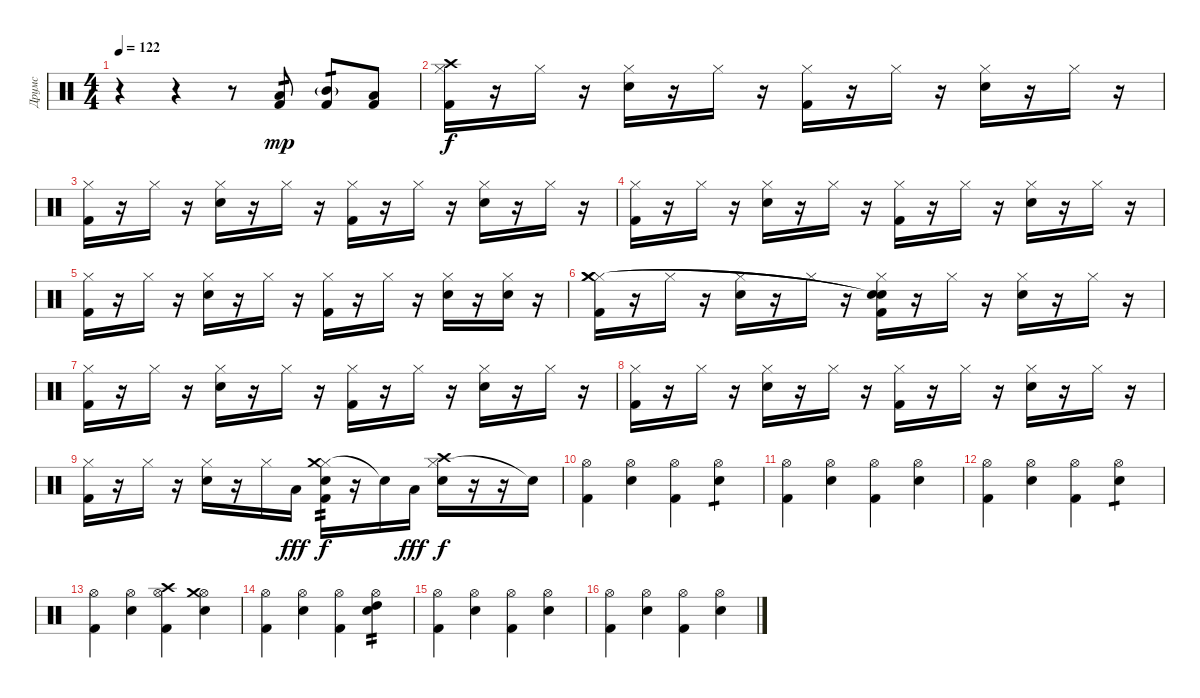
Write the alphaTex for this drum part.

\track ("Друмс" "Друмс") {instrument percussion}
\staff {score}
\articulation defaults
\ts (4 4)
\tempo 122
\clef neutral
\ks c
r.4{dy mp} r.4 r.8 ("Low Tom (hit)" "Kick (hit) 2").8{tp 1} ("Mid Tom (hit)"{g} "Kick (hit) 2").8{tp 1} ("Low Tom (hit)" "Kick (hit) 2").8 |
("Hi-Hat (closed)" "Kick (hit) 2" "Crash high (hit)").16{dy f} r.16 "Hi-Hat (closed)".16 r.16 ("Hi-Hat (closed)" "Snare (hit) 2").16 r.16 "Hi-Hat (closed)".16 r.16 ("Hi-Hat (closed)" "Kick (hit) 2").16 r.16 "Hi-Hat (closed)".16 r.16 ("Hi-Hat (closed)" "Snare (hit) 2").16 r.16 "Hi-Hat (closed)".16 r.16 |
("Hi-Hat (closed)" "Kick (hit) 2").16 r.16 "Hi-Hat (closed)".16 r.16 ("Hi-Hat (closed)" "Snare (hit) 2").16 r.16 "Hi-Hat (closed)".16 r.16 ("Hi-Hat (closed)" "Kick (hit) 2").16 r.16 "Hi-Hat (closed)".16 r.16 ("Hi-Hat (closed)" "Snare (hit) 2").16 r.16 "Hi-Hat (closed)".16 r.16 |
("Hi-Hat (closed)" "Kick (hit) 2").16 r.16 "Hi-Hat (closed)".16 r.16 ("Hi-Hat (closed)" "Snare (hit) 2").16 r.16 "Hi-Hat (closed)".16 r.16 ("Hi-Hat (closed)" "Kick (hit) 2").16 r.16 "Hi-Hat (closed)".16 r.16 ("Hi-Hat (closed)" "Snare (hit) 2").16 r.16 "Hi-Hat (closed)".16 r.16 |
("Hi-Hat (closed)" "Kick (hit) 2").16 r.16 "Hi-Hat (closed)".16 r.16 ("Hi-Hat (closed)" "Snare (hit) 2").16 r.16 "Hi-Hat (closed)".16 r.16 ("Hi-Hat (closed)" "Kick (hit) 2").16 r.16 "Hi-Hat (closed)".16 r.16 ("Hi-Hat (closed)" "Snare (hit) 2").16 r.16 ("Hi-Hat (closed)" "Snare (hit) 2").16 r.16 |
("Hi-Hat (closed)" "Kick (hit) 2" "Crash medium (hit)" "Crash medium (hit)").16 r.16 "Hi-Hat (closed)".16 r.16 ("Hi-Hat (closed)" "Snare (hit) 2").16 r.16 "Hi-Hat (closed)".16 r.16 ("Hi-Hat (closed)" "Kick (hit) 2" "Snare (hit)"{t} "Snare (hit)"{t}).16 r.16 "Hi-Hat (closed)".16 r.16 ("Hi-Hat (closed)" "Snare (hit) 2").16 r.16 "Hi-Hat (closed)".16 r.16 |
("Hi-Hat (closed)" "Kick (hit) 2").16 r.16 "Hi-Hat (closed)".16 r.16 ("Hi-Hat (closed)" "Snare (hit) 2").16 r.16 "Hi-Hat (closed)".16 r.16 ("Hi-Hat (closed)" "Kick (hit) 2").16 r.16 "Hi-Hat (closed)".16 r.16 ("Hi-Hat (closed)" "Snare (hit) 2").16 r.16 "Hi-Hat (closed)".16 r.16 |
("Hi-Hat (closed)" "Kick (hit) 2").16 r.16 "Hi-Hat (closed)".16 r.16 ("Hi-Hat (closed)" "Snare (hit) 2").16 r.16 "Hi-Hat (closed)".16 r.16 ("Hi-Hat (closed)" "Kick (hit) 2").16 r.16 "Hi-Hat (closed)".16 r.16 ("Hi-Hat (closed)" "Snare (hit) 2").16 r.16 "Hi-Hat (closed)".16 r.16 |
("Hi-Hat (closed)" "Kick (hit) 2").16 r.16 "Hi-Hat (closed)".16 r.16 ("Hi-Hat (closed)" "Snare (hit) 2").16 r.16 "Hi-Hat (closed)".16 "Low Tom (hit)".16{dy fff} ("Hi-Hat (closed)" "Kick (hit) 2" "Crash medium (hit)" "Snare (hit) 2").16{tp 2 dy f} r.16 "Snare (hit)"{t}.16 "Low Tom (hit)".16{dy fff} ("Hi-Hat (closed)" "Snare (hit) 2" "Crash high (hit)").16{dy f} r.16 r.16 "Snare (hit)"{t}.16 |
("Hi-Hat (open)" "Kick (hit) 2").4 ("Hi-Hat (open)" "Snare (hit) 2").4 ("Hi-Hat (open)" "Kick (hit) 2").4 ("Hi-Hat (open)" "Snare (hit) 2").4{tp 1} |
("Hi-Hat (open)" "Kick (hit) 2").4 ("Hi-Hat (open)" "Snare (hit) 2").4 ("Hi-Hat (open)" "Kick (hit) 2").4 ("Hi-Hat (open)" "Snare (hit) 2").4 |
("Hi-Hat (open)" "Kick (hit) 2").4 ("Hi-Hat (open)" "Snare (hit) 2").4 ("Hi-Hat (open)" "Kick (hit) 2").4 ("Hi-Hat (open)" "Snare (hit) 2").4{tp 1} |
("Hi-Hat (open)" "Kick (hit) 2").4 ("Hi-Hat (open)" "Snare (hit) 2").4 ("Hi-Hat (open)" "Kick (hit) 2" "Crash high (hit)").4 ("Hi-Hat (open)" "Snare (hit) 2" "Crash medium (hit)").4 |
("Hi-Hat (open)" "Kick (hit) 2").4 ("Hi-Hat (open)" "Snare (hit) 2").4 ("Hi-Hat (open)" "Kick (hit) 2").4 ("Hi-Hat (open)" "Snare (hit) 2" "High Tom (hit)").4{tp 2} |
("Hi-Hat (open)" "Kick (hit) 2").4 ("Hi-Hat (open)" "Snare (hit) 2").4 ("Hi-Hat (open)" "Kick (hit) 2").4 ("Hi-Hat (open)" "Snare (hit) 2").4 |
("Hi-Hat (open)" "Kick (hit) 2").4 ("Hi-Hat (open)" "Snare (hit) 2").4 ("Hi-Hat (open)" "Kick (hit) 2").4 ("Hi-Hat (open)" "Snare (hit) 2").4
